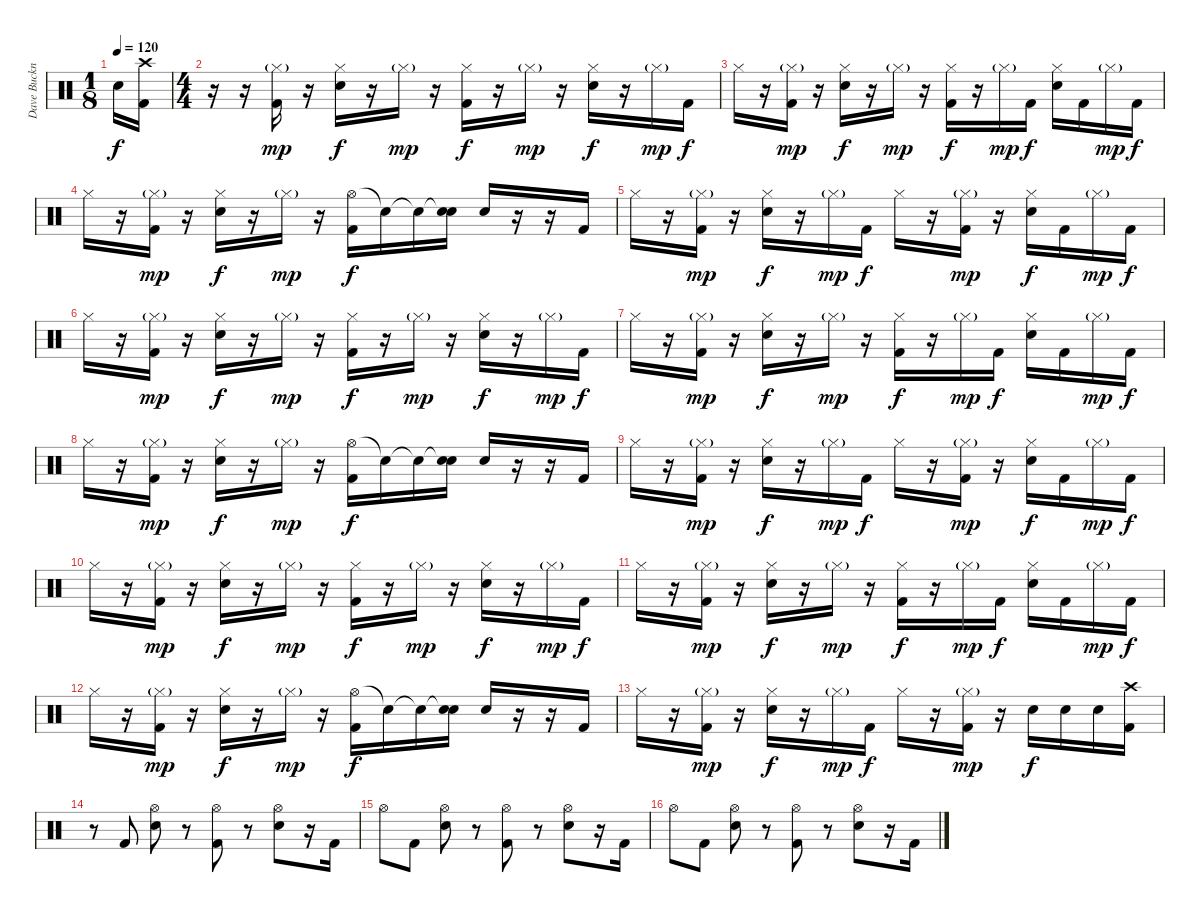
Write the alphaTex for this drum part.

\track ("Dave Buckner RULZ!!! (Drums)" "Dave Buckn") {instrument percussion}
\staff {score}
\articulation defaults
\ts (1 8)
\tempo 120
\clef neutral
\ks c "Electric Snare (hit)".16{dy f}
("Crash high (hit)" "Kick (hit) 2").16 |
\ts (4 4)
r.16 r.16 ("Hi-Hat (closed)"{g} "Kick (hit) 2").16{dy mp} r.16 ("Hi-Hat (closed)" "Electric Snare (hit)").16{dy f} r.16 "Hi-Hat (closed)"{g}.16{dy mp} r.16 ("Hi-Hat (closed)" "Kick (hit) 2").16{dy f} r.16 "Hi-Hat (closed)"{g}.16{dy mp} r.16 ("Hi-Hat (closed)" "Electric Snare (hit)").16{dy f} r.16 "Hi-Hat (closed)"{g}.16{dy mp} "Kick (hit) 2".16{dy f} |
"Hi-Hat (closed)".16 r.16 ("Hi-Hat (closed)"{g} "Kick (hit) 2").16{dy mp} r.16 ("Hi-Hat (closed)" "Electric Snare (hit)").16{dy f} r.16 "Hi-Hat (closed)"{g}.16{dy mp} r.16 ("Hi-Hat (closed)" "Kick (hit) 2").16{dy f} r.16 "Hi-Hat (closed)"{g}.16{dy mp} "Kick (hit) 2".16{dy f} ("Hi-Hat (closed)" "Electric Snare (hit)").16 "Kick (hit) 2".16 "Hi-Hat (closed)"{g}.16{dy mp} "Kick (hit) 2".16{dy f} |
"Hi-Hat (closed)".16 r.16 ("Hi-Hat (closed)"{g} "Kick (hit) 2").16{dy mp} r.16 ("Hi-Hat (closed)" "Electric Snare (hit)").16{dy f} r.16 "Hi-Hat (closed)"{g}.16{dy mp} r.16 ("Hi-Hat (open)" "Kick (hit) 2").16{dy f} "Snare (hit)"{t}.16 "Snare (hit)"{t}.16 ("Snare (hit)"{t} "Electric Snare (hit)").16 "Electric Snare (hit)".16 r.16 r.16 "Kick (hit) 2".16 |
"Hi-Hat (closed)".16 r.16 ("Hi-Hat (closed)"{g} "Kick (hit) 2").16{dy mp} r.16 ("Hi-Hat (closed)" "Electric Snare (hit)").16{dy f} r.16 "Hi-Hat (closed)"{g}.16{dy mp} "Kick (hit) 2".16{dy f} "Hi-Hat (closed)".16 r.16 ("Hi-Hat (closed)"{g} "Kick (hit) 2").16{dy mp} r.16 ("Hi-Hat (closed)" "Electric Snare (hit)").16{dy f} "Kick (hit) 2".16 "Hi-Hat (closed)"{g}.16{dy mp} "Kick (hit) 2".16{dy f} |
"Hi-Hat (closed)".16 r.16 ("Hi-Hat (closed)"{g} "Kick (hit) 2").16{dy mp} r.16 ("Hi-Hat (closed)" "Electric Snare (hit)").16{dy f} r.16 "Hi-Hat (closed)"{g}.16{dy mp} r.16 ("Hi-Hat (closed)" "Kick (hit) 2").16{dy f} r.16 "Hi-Hat (closed)"{g}.16{dy mp} r.16 ("Hi-Hat (closed)" "Electric Snare (hit)").16{dy f} r.16 "Hi-Hat (closed)"{g}.16{dy mp} "Kick (hit) 2".16{dy f} |
"Hi-Hat (closed)".16 r.16 ("Hi-Hat (closed)"{g} "Kick (hit) 2").16{dy mp} r.16 ("Hi-Hat (closed)" "Electric Snare (hit)").16{dy f} r.16 "Hi-Hat (closed)"{g}.16{dy mp} r.16 ("Hi-Hat (closed)" "Kick (hit) 2").16{dy f} r.16 "Hi-Hat (closed)"{g}.16{dy mp} "Kick (hit) 2".16{dy f} ("Hi-Hat (closed)" "Electric Snare (hit)").16 "Kick (hit) 2".16 "Hi-Hat (closed)"{g}.16{dy mp} "Kick (hit) 2".16{dy f} |
"Hi-Hat (closed)".16 r.16 ("Hi-Hat (closed)"{g} "Kick (hit) 2").16{dy mp} r.16 ("Hi-Hat (closed)" "Electric Snare (hit)").16{dy f} r.16 "Hi-Hat (closed)"{g}.16{dy mp} r.16 ("Hi-Hat (open)" "Kick (hit) 2").16{dy f} "Snare (hit)"{t}.16 "Snare (hit)"{t}.16 ("Snare (hit)"{t} "Electric Snare (hit)").16 "Electric Snare (hit)".16 r.16 r.16 "Kick (hit) 2".16 |
"Hi-Hat (closed)".16 r.16 ("Hi-Hat (closed)"{g} "Kick (hit) 2").16{dy mp} r.16 ("Hi-Hat (closed)" "Electric Snare (hit)").16{dy f} r.16 "Hi-Hat (closed)"{g}.16{dy mp} "Kick (hit) 2".16{dy f} "Hi-Hat (closed)".16 r.16 ("Hi-Hat (closed)"{g} "Kick (hit) 2").16{dy mp} r.16 ("Hi-Hat (closed)" "Electric Snare (hit)").16{dy f} "Kick (hit) 2".16 "Hi-Hat (closed)"{g}.16{dy mp} "Kick (hit) 2".16{dy f} |
"Hi-Hat (closed)".16 r.16 ("Hi-Hat (closed)"{g} "Kick (hit) 2").16{dy mp} r.16 ("Hi-Hat (closed)" "Electric Snare (hit)").16{dy f} r.16 "Hi-Hat (closed)"{g}.16{dy mp} r.16 ("Hi-Hat (closed)" "Kick (hit) 2").16{dy f} r.16 "Hi-Hat (closed)"{g}.16{dy mp} r.16 ("Hi-Hat (closed)" "Electric Snare (hit)").16{dy f} r.16 "Hi-Hat (closed)"{g}.16{dy mp} "Kick (hit) 2".16{dy f} |
"Hi-Hat (closed)".16 r.16 ("Hi-Hat (closed)"{g} "Kick (hit) 2").16{dy mp} r.16 ("Hi-Hat (closed)" "Electric Snare (hit)").16{dy f} r.16 "Hi-Hat (closed)"{g}.16{dy mp} r.16 ("Hi-Hat (closed)" "Kick (hit) 2").16{dy f} r.16 "Hi-Hat (closed)"{g}.16{dy mp} "Kick (hit) 2".16{dy f} ("Hi-Hat (closed)" "Electric Snare (hit)").16 "Kick (hit) 2".16 "Hi-Hat (closed)"{g}.16{dy mp} "Kick (hit) 2".16{dy f} |
"Hi-Hat (closed)".16 r.16 ("Hi-Hat (closed)"{g} "Kick (hit) 2").16{dy mp} r.16 ("Hi-Hat (closed)" "Electric Snare (hit)").16{dy f} r.16 "Hi-Hat (closed)"{g}.16{dy mp} r.16 ("Hi-Hat (open)" "Kick (hit) 2").16{dy f} "Snare (hit)"{t}.16 "Snare (hit)"{t}.16 ("Snare (hit)"{t} "Electric Snare (hit)").16 "Electric Snare (hit)".16 r.16 r.16 "Kick (hit) 2".16 |
"Hi-Hat (closed)".16 r.16 ("Hi-Hat (closed)"{g} "Kick (hit) 2").16{dy mp} r.16 ("Hi-Hat (closed)" "Electric Snare (hit)").16{dy f} r.16 "Hi-Hat (closed)"{g}.16{dy mp} "Kick (hit) 2".16{dy f} "Hi-Hat (closed)".16 r.16 ("Hi-Hat (closed)"{g} "Kick (hit) 2").16{dy mp} r.16 "Electric Snare (hit)".16{dy f} "Electric Snare (hit)".16 "Electric Snare (hit)".16 ("Crash high (hit)" "Kick (hit) 2").16 |
r.8 "Kick (hit) 2".8 ("Hi-Hat (open)" "Electric Snare (hit)").8 r.8 ("Hi-Hat (open)" "Kick (hit) 2").8 r.8 ("Hi-Hat (open)" "Electric Snare (hit)").8 r.16 "Kick (hit) 2".16 |
"Hi-Hat (open)".8 "Kick (hit) 2".8 ("Hi-Hat (open)" "Electric Snare (hit)").8 r.8 ("Hi-Hat (open)" "Kick (hit) 2").8 r.8 ("Hi-Hat (open)" "Electric Snare (hit)").8 r.16 "Kick (hit) 2".16 |
"Hi-Hat (open)".8 "Kick (hit) 2".8 ("Hi-Hat (open)" "Electric Snare (hit)").8 r.8 ("Hi-Hat (open)" "Kick (hit) 2").8 r.8 ("Hi-Hat (open)" "Electric Snare (hit)").8 r.16 "Kick (hit) 2".16
